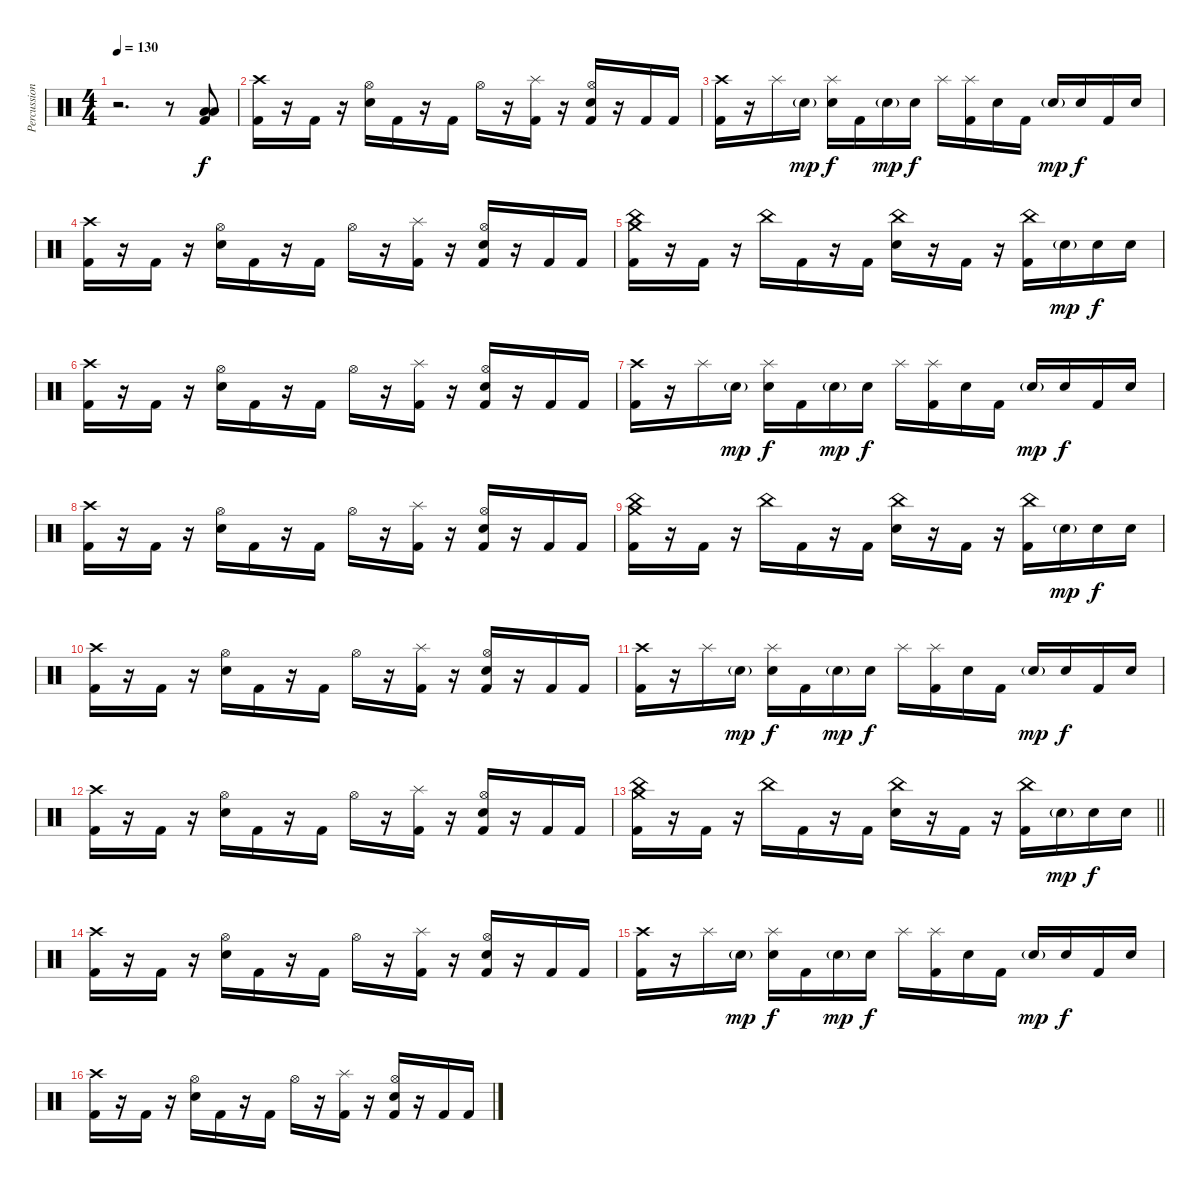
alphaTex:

\track ("Percussion" "Percussion") {instrument percussion}
\staff {score}
\articulation defaults
\ts (4 4)
\tempo 130
\clef neutral
\ks c
r.2{d dy f} r.8 ("Low Tom (hit)" "Low Floor Tom (hit)" "Kick (hit) 2").8 |
("Crash high (hit)" "Kick (hit) 2").16 r.16 "Kick (hit) 2".16 r.16 ("Hi-Hat (open)" "Electric Snare (hit)").16 "Kick (hit) 2".16 r.16 "Kick (hit) 2".16 "Hi-Hat (open)".16 r.16 ("Splash (hit)" "Kick (hit) 2").16 r.16 ("Hi-Hat (open)" "Electric Snare (hit)" "Kick (hit) 2").16 r.16 "Kick (hit) 2".16 "Kick (hit) 2".16 |
("Crash high (hit)" "Kick (hit) 2").16 r.16 "Splash (hit)".16 "Electric Snare (hit)"{g}.16{dy mp} ("Splash (hit)" "Electric Snare (hit)").16{dy f} "Kick (hit) 2".16 "Electric Snare (hit)"{g}.16{dy mp} "Electric Snare (hit)".16{dy f} "Splash (hit)".16 ("Splash (hit)" "Kick (hit) 2").16 "Electric Snare (hit)".16 "Kick (hit) 2".16 "Electric Snare (hit)"{g}.16{dy mp} "Electric Snare (hit)".16{dy f} "Kick (hit) 2".16 "Electric Snare (hit)".16 |
("Crash high (hit)" "Kick (hit) 2").16 r.16 "Kick (hit) 2".16 r.16 ("Hi-Hat (open)" "Electric Snare (hit)").16 "Kick (hit) 2".16 r.16 "Kick (hit) 2".16 "Hi-Hat (open)".16 r.16 ("Splash (hit)" "Kick (hit) 2").16 r.16 ("Hi-Hat (open)" "Electric Snare (hit)" "Kick (hit) 2").16 r.16 "Kick (hit) 2".16 "Kick (hit) 2".16 |
("Crash medium (hit)" "China (hit)" "Kick (hit) 2").16 r.16 "Kick (hit) 2".16 r.16 "China (hit)".16 "Kick (hit) 2".16 r.16 "Kick (hit) 2".16 ("China (hit)" "Electric Snare (hit)").16 r.16 "Kick (hit) 2".16 r.16 ("China (hit)" "Kick (hit) 2").16 "Electric Snare (hit)"{g}.16{dy mp} "Electric Snare (hit)".16{dy f} "Electric Snare (hit)".16 |
("Crash high (hit)" "Kick (hit) 2").16 r.16 "Kick (hit) 2".16 r.16 ("Hi-Hat (open)" "Electric Snare (hit)").16 "Kick (hit) 2".16 r.16 "Kick (hit) 2".16 "Hi-Hat (open)".16 r.16 ("Splash (hit)" "Kick (hit) 2").16 r.16 ("Hi-Hat (open)" "Electric Snare (hit)" "Kick (hit) 2").16 r.16 "Kick (hit) 2".16 "Kick (hit) 2".16 |
("Crash high (hit)" "Kick (hit) 2").16 r.16 "Splash (hit)".16 "Electric Snare (hit)"{g}.16{dy mp} ("Splash (hit)" "Electric Snare (hit)").16{dy f} "Kick (hit) 2".16 "Electric Snare (hit)"{g}.16{dy mp} "Electric Snare (hit)".16{dy f} "Splash (hit)".16 ("Splash (hit)" "Kick (hit) 2").16 "Electric Snare (hit)".16 "Kick (hit) 2".16 "Electric Snare (hit)"{g}.16{dy mp} "Electric Snare (hit)".16{dy f} "Kick (hit) 2".16 "Electric Snare (hit)".16 |
("Crash high (hit)" "Kick (hit) 2").16 r.16 "Kick (hit) 2".16 r.16 ("Hi-Hat (open)" "Electric Snare (hit)").16 "Kick (hit) 2".16 r.16 "Kick (hit) 2".16 "Hi-Hat (open)".16 r.16 ("Splash (hit)" "Kick (hit) 2").16 r.16 ("Hi-Hat (open)" "Electric Snare (hit)" "Kick (hit) 2").16 r.16 "Kick (hit) 2".16 "Kick (hit) 2".16 |
("Crash medium (hit)" "China (hit)" "Kick (hit) 2").16 r.16 "Kick (hit) 2".16 r.16 "China (hit)".16 "Kick (hit) 2".16 r.16 "Kick (hit) 2".16 ("China (hit)" "Electric Snare (hit)").16 r.16 "Kick (hit) 2".16 r.16 ("China (hit)" "Kick (hit) 2").16 "Electric Snare (hit)"{g}.16{dy mp} "Electric Snare (hit)".16{dy f} "Electric Snare (hit)".16 |
("Crash high (hit)" "Kick (hit) 2").16 r.16 "Kick (hit) 2".16 r.16 ("Hi-Hat (open)" "Electric Snare (hit)").16 "Kick (hit) 2".16 r.16 "Kick (hit) 2".16 "Hi-Hat (open)".16 r.16 ("Splash (hit)" "Kick (hit) 2").16 r.16 ("Hi-Hat (open)" "Electric Snare (hit)" "Kick (hit) 2").16 r.16 "Kick (hit) 2".16 "Kick (hit) 2".16 |
("Crash high (hit)" "Kick (hit) 2").16 r.16 "Splash (hit)".16 "Electric Snare (hit)"{g}.16{dy mp} ("Splash (hit)" "Electric Snare (hit)").16{dy f} "Kick (hit) 2".16 "Electric Snare (hit)"{g}.16{dy mp} "Electric Snare (hit)".16{dy f} "Splash (hit)".16 ("Splash (hit)" "Kick (hit) 2").16 "Electric Snare (hit)".16 "Kick (hit) 2".16 "Electric Snare (hit)"{g}.16{dy mp} "Electric Snare (hit)".16{dy f} "Kick (hit) 2".16 "Electric Snare (hit)".16 |
("Crash high (hit)" "Kick (hit) 2").16 r.16 "Kick (hit) 2".16 r.16 ("Hi-Hat (open)" "Electric Snare (hit)").16 "Kick (hit) 2".16 r.16 "Kick (hit) 2".16 "Hi-Hat (open)".16 r.16 ("Splash (hit)" "Kick (hit) 2").16 r.16 ("Hi-Hat (open)" "Electric Snare (hit)" "Kick (hit) 2").16 r.16 "Kick (hit) 2".16 "Kick (hit) 2".16 |
\barLineRight lightlight
("Crash medium (hit)" "China (hit)" "Kick (hit) 2").16 r.16 "Kick (hit) 2".16 r.16 "China (hit)".16 "Kick (hit) 2".16 r.16 "Kick (hit) 2".16 ("China (hit)" "Electric Snare (hit)").16 r.16 "Kick (hit) 2".16 r.16 ("China (hit)" "Kick (hit) 2").16 "Electric Snare (hit)"{g}.16{dy mp} "Electric Snare (hit)".16{dy f} "Electric Snare (hit)".16 |
("Crash high (hit)" "Kick (hit) 2").16 r.16 "Kick (hit) 2".16 r.16 ("Hi-Hat (open)" "Electric Snare (hit)").16 "Kick (hit) 2".16 r.16 "Kick (hit) 2".16 "Hi-Hat (open)".16 r.16 ("Splash (hit)" "Kick (hit) 2").16 r.16 ("Hi-Hat (open)" "Electric Snare (hit)" "Kick (hit) 2").16 r.16 "Kick (hit) 2".16 "Kick (hit) 2".16 |
("Crash high (hit)" "Kick (hit) 2").16 r.16 "Splash (hit)".16 "Electric Snare (hit)"{g}.16{dy mp} ("Splash (hit)" "Electric Snare (hit)").16{dy f} "Kick (hit) 2".16 "Electric Snare (hit)"{g}.16{dy mp} "Electric Snare (hit)".16{dy f} "Splash (hit)".16 ("Splash (hit)" "Kick (hit) 2").16 "Electric Snare (hit)".16 "Kick (hit) 2".16 "Electric Snare (hit)"{g}.16{dy mp} "Electric Snare (hit)".16{dy f} "Kick (hit) 2".16 "Electric Snare (hit)".16 |
("Crash high (hit)" "Kick (hit) 2").16 r.16 "Kick (hit) 2".16 r.16 ("Hi-Hat (open)" "Electric Snare (hit)").16 "Kick (hit) 2".16 r.16 "Kick (hit) 2".16 "Hi-Hat (open)".16 r.16 ("Splash (hit)" "Kick (hit) 2").16 r.16 ("Hi-Hat (open)" "Electric Snare (hit)" "Kick (hit) 2").16 r.16 "Kick (hit) 2".16 "Kick (hit) 2".16
